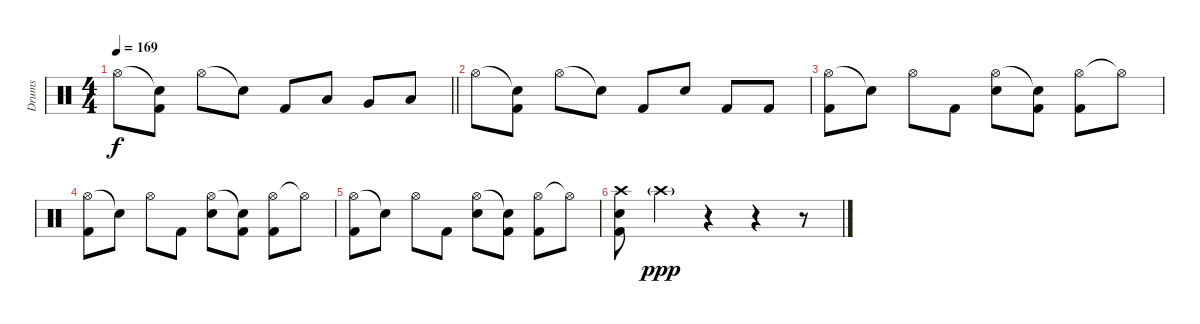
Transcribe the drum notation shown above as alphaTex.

\track ("Drums" "Drums") {instrument percussion}
\staff {score}
\articulation defaults
\ts (4 4)
\tempo 169
\clef neutral
\barLineRight lightlight
\ks c "Hi-Hat (open)".8{dy f}
("Snare (hit)"{t} "Kick (hit) 2").8 "Hi-Hat (open)".8 "Snare (hit)"{t}.8 "Kick (hit) 2".8 "Low Tom (hit)".8 "Very Low Tom (hit)".8 "Low Floor Tom (hit)".8 |
"Hi-Hat (open)".8 ("Snare (hit)"{t} "Kick (hit) 2").8 "Hi-Hat (open)".8 "Snare (hit)"{t}.8 "Kick (hit) 2".8 "Electric Snare (hit)".8 "Kick (hit) 2".8 "Kick (hit) 2".8 |
("Hi-Hat (open)" "Kick (hit) 2").8 "Snare (hit)"{t}.8 "Hi-Hat (open)".8 "Kick (hit) 2".8 ("Hi-Hat (open)" "Electric Snare (hit)").8 ("Snare (hit)"{t} "Kick (hit) 2").8 ("Hi-Hat (open)" "Kick (hit) 2").8 "Hi-Hat (open)"{t}.8 |
("Hi-Hat (open)" "Kick (hit) 2").8 "Snare (hit)"{t}.8 "Hi-Hat (open)".8 "Kick (hit) 2".8 ("Hi-Hat (open)" "Electric Snare (hit)").8 ("Snare (hit)"{t} "Kick (hit) 2").8 ("Hi-Hat (open)" "Kick (hit) 2").8 "Hi-Hat (open)"{t}.8 |
("Hi-Hat (open)" "Kick (hit) 2").8 "Snare (hit)"{t}.8 "Hi-Hat (open)".8 "Kick (hit) 2".8 ("Hi-Hat (open)" "Electric Snare (hit)").8 ("Snare (hit)"{t} "Kick (hit) 2").8 ("Hi-Hat (open)" "Kick (hit) 2").8 "Hi-Hat (open)"{t}.8 |
("Crash high (hit)" "Electric Snare (hit)" "Kick (hit) 2").8 "Crash high (hit)"{g}.4{dy ppp} r.4 r.4 r.8
